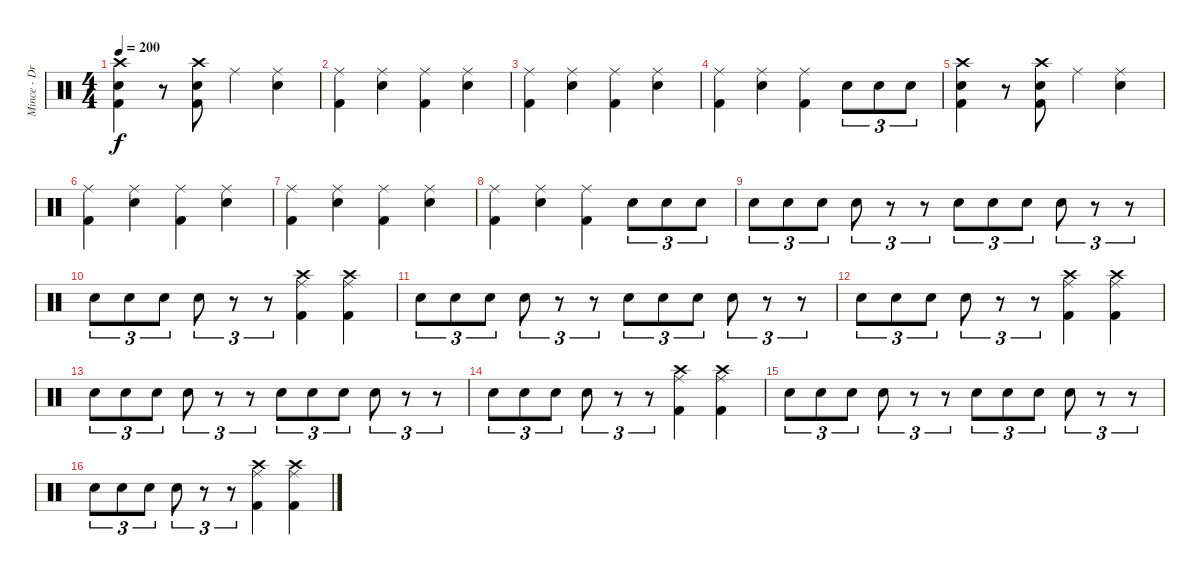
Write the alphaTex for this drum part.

\track ("Mince - Drums" "Mince - Dr") {instrument percussion}
\staff {score}
\articulation defaults
\ts (4 4)
\tempo 200
\clef neutral
\ks c
("Crash high (hit)" "Electric Snare (hit)" "Kick (hit) 2").4{dy f} r.8 ("Crash high (hit)" "Electric Snare (hit)" "Kick (hit) 2").8 "Ride (middle)".4 ("Ride (middle)" "Electric Snare (hit)").4 |
("Ride (middle)" "Kick (hit) 2").4 ("Ride (middle)" "Electric Snare (hit)").4 ("Ride (middle)" "Kick (hit) 2").4 ("Ride (middle)" "Electric Snare (hit)").4 |
("Ride (middle)" "Kick (hit) 2").4 ("Ride (middle)" "Electric Snare (hit)").4 ("Ride (middle)" "Kick (hit) 2").4 ("Ride (middle)" "Electric Snare (hit)").4 |
("Ride (middle)" "Kick (hit) 2").4 ("Ride (middle)" "Electric Snare (hit)").4 ("Ride (middle)" "Kick (hit) 2").4 "Electric Snare (hit)".8{tu (3 2)} "Electric Snare (hit)".8{tu (3 2)} "Electric Snare (hit)".8{tu (3 2)} |
("Crash high (hit)" "Electric Snare (hit)" "Kick (hit) 2").4 r.8 ("Crash high (hit)" "Electric Snare (hit)" "Kick (hit) 2").8 "Ride (middle)".4 ("Ride (middle)" "Electric Snare (hit)").4 |
("Ride (middle)" "Kick (hit) 2").4 ("Ride (middle)" "Electric Snare (hit)").4 ("Ride (middle)" "Kick (hit) 2").4 ("Ride (middle)" "Electric Snare (hit)").4 |
("Ride (middle)" "Kick (hit) 2").4 ("Ride (middle)" "Electric Snare (hit)").4 ("Ride (middle)" "Kick (hit) 2").4 ("Ride (middle)" "Electric Snare (hit)").4 |
("Ride (middle)" "Kick (hit) 2").4 ("Ride (middle)" "Electric Snare (hit)").4 ("Ride (middle)" "Kick (hit) 2").4 "Electric Snare (hit)".8{tu (3 2)} "Electric Snare (hit)".8{tu (3 2)} "Electric Snare (hit)".8{tu (3 2)} |
"Electric Snare (hit)".8{tu (3 2)} "Electric Snare (hit)".8{tu (3 2)} "Electric Snare (hit)".8{tu (3 2)} "Electric Snare (hit)".8{tu (3 2)} r.8{tu (3 2)} r.8{tu (3 2)} "Electric Snare (hit)".8{tu (3 2)} "Electric Snare (hit)".8{tu (3 2)} "Electric Snare (hit)".8{tu (3 2)} "Electric Snare (hit)".8{tu (3 2)} r.8{tu (3 2)} r.8{tu (3 2)} |
"Electric Snare (hit)".8{tu (3 2)} "Electric Snare (hit)".8{tu (3 2)} "Electric Snare (hit)".8{tu (3 2)} "Electric Snare (hit)".8{tu (3 2)} r.8{tu (3 2)} r.8{tu (3 2)} ("Crash high (hit)" "Ride (middle)" "Kick (hit) 2").4 ("Crash high (hit)" "Ride (middle)" "Kick (hit) 2").4 |
"Electric Snare (hit)".8{tu (3 2)} "Electric Snare (hit)".8{tu (3 2)} "Electric Snare (hit)".8{tu (3 2)} "Electric Snare (hit)".8{tu (3 2)} r.8{tu (3 2)} r.8{tu (3 2)} "Electric Snare (hit)".8{tu (3 2)} "Electric Snare (hit)".8{tu (3 2)} "Electric Snare (hit)".8{tu (3 2)} "Electric Snare (hit)".8{tu (3 2)} r.8{tu (3 2)} r.8{tu (3 2)} |
"Electric Snare (hit)".8{tu (3 2)} "Electric Snare (hit)".8{tu (3 2)} "Electric Snare (hit)".8{tu (3 2)} "Electric Snare (hit)".8{tu (3 2)} r.8{tu (3 2)} r.8{tu (3 2)} ("Crash high (hit)" "Ride (middle)" "Kick (hit) 2").4 ("Crash high (hit)" "Ride (middle)" "Kick (hit) 2").4 |
"Electric Snare (hit)".8{tu (3 2)} "Electric Snare (hit)".8{tu (3 2)} "Electric Snare (hit)".8{tu (3 2)} "Electric Snare (hit)".8{tu (3 2)} r.8{tu (3 2)} r.8{tu (3 2)} "Electric Snare (hit)".8{tu (3 2)} "Electric Snare (hit)".8{tu (3 2)} "Electric Snare (hit)".8{tu (3 2)} "Electric Snare (hit)".8{tu (3 2)} r.8{tu (3 2)} r.8{tu (3 2)} |
"Electric Snare (hit)".8{tu (3 2)} "Electric Snare (hit)".8{tu (3 2)} "Electric Snare (hit)".8{tu (3 2)} "Electric Snare (hit)".8{tu (3 2)} r.8{tu (3 2)} r.8{tu (3 2)} ("Crash high (hit)" "Ride (middle)" "Kick (hit) 2").4 ("Crash high (hit)" "Ride (middle)" "Kick (hit) 2").4 |
"Electric Snare (hit)".8{tu (3 2)} "Electric Snare (hit)".8{tu (3 2)} "Electric Snare (hit)".8{tu (3 2)} "Electric Snare (hit)".8{tu (3 2)} r.8{tu (3 2)} r.8{tu (3 2)} "Electric Snare (hit)".8{tu (3 2)} "Electric Snare (hit)".8{tu (3 2)} "Electric Snare (hit)".8{tu (3 2)} "Electric Snare (hit)".8{tu (3 2)} r.8{tu (3 2)} r.8{tu (3 2)} |
"Electric Snare (hit)".8{tu (3 2)} "Electric Snare (hit)".8{tu (3 2)} "Electric Snare (hit)".8{tu (3 2)} "Electric Snare (hit)".8{tu (3 2)} r.8{tu (3 2)} r.8{tu (3 2)} ("Crash high (hit)" "Ride (middle)" "Kick (hit) 2").4 ("Crash high (hit)" "Ride (middle)" "Kick (hit) 2").4
